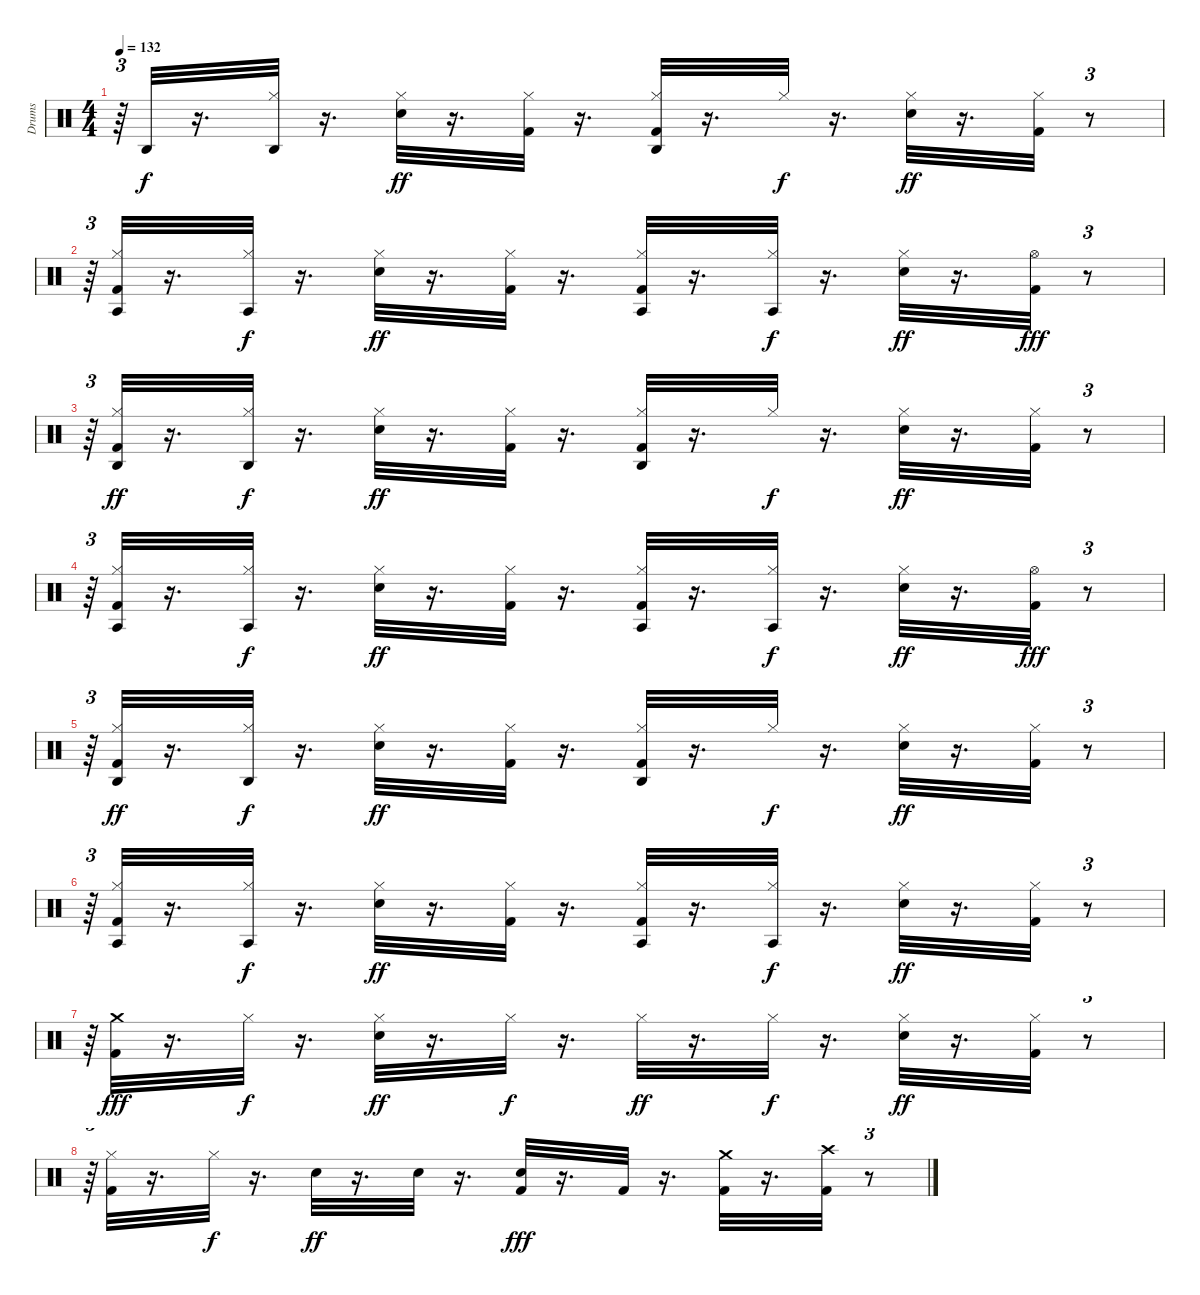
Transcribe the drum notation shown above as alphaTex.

\track ("Drums" "Drums") {instrument percussion}
\staff {score}
\articulation defaults
\ts (4 4)
\tempo 132
\clef neutral
\ks c
r.64{tu (3 2) dy fff} "Agogo high (hit)".32{dy f} r.16{d} ("Hi-Hat (closed)" "Agogo high (hit)").32 r.16{d} ("Snare (hit) 2" "Hi-Hat (closed)").32{dy ff} r.16{d} ("Kick (hit) 2" "Hi-Hat (closed)").32 r.16{d} ("Kick (hit) 2" "Hi-Hat (closed)" "Agogo high (hit)").32 r.16{d} "Hi-Hat (closed)".32{dy f} r.16{d} ("Snare (hit) 2" "Hi-Hat (closed)").32{dy ff} r.16{d} ("Kick (hit) 2" "Hi-Hat (closed)").32 r.8{tu (3 2)} |
r.64{tu (3 2)} ("Kick (hit) 2" "Hi-Hat (closed)" "Agogo tow (hit)").32 r.16{d} ("Hi-Hat (closed)" "Agogo tow (hit)").32{dy f} r.16{d} ("Snare (hit) 2" "Hi-Hat (closed)").32{dy ff} r.16{d} ("Kick (hit) 2" "Hi-Hat (closed)").32 r.16{d} ("Kick (hit) 2" "Hi-Hat (closed)" "Agogo tow (hit)").32 r.16{d} ("Hi-Hat (closed)" "Agogo tow (hit)").32{dy f} r.16{d} ("Snare (hit) 2" "Hi-Hat (closed)").32{dy ff} r.16{d} ("Kick (hit) 2" "Hi-Hat (open)").32{dy fff} r.8{tu (3 2)} |
r.64{tu (3 2)} ("Kick (hit) 2" "Hi-Hat (closed)" "Agogo high (hit)").32{dy ff} r.16{d} ("Hi-Hat (closed)" "Agogo high (hit)").32{dy f} r.16{d} ("Snare (hit) 2" "Hi-Hat (closed)").32{dy ff} r.16{d} ("Kick (hit) 2" "Hi-Hat (closed)").32 r.16{d} ("Kick (hit) 2" "Hi-Hat (closed)" "Agogo high (hit)").32 r.16{d} "Hi-Hat (closed)".32{dy f} r.16{d} ("Snare (hit) 2" "Hi-Hat (closed)").32{dy ff} r.16{d} ("Kick (hit) 2" "Hi-Hat (closed)").32 r.8{tu (3 2)} |
r.64{tu (3 2)} ("Kick (hit) 2" "Hi-Hat (closed)" "Agogo tow (hit)").32 r.16{d} ("Hi-Hat (closed)" "Agogo tow (hit)").32{dy f} r.16{d} ("Snare (hit) 2" "Hi-Hat (closed)").32{dy ff} r.16{d} ("Kick (hit) 2" "Hi-Hat (closed)").32 r.16{d} ("Kick (hit) 2" "Hi-Hat (closed)" "Agogo tow (hit)").32 r.16{d} ("Hi-Hat (closed)" "Agogo tow (hit)").32{dy f} r.16{d} ("Snare (hit) 2" "Hi-Hat (closed)").32{dy ff} r.16{d} ("Kick (hit) 2" "Hi-Hat (open)").32{dy fff} r.8{tu (3 2)} |
r.64{tu (3 2)} ("Kick (hit) 2" "Hi-Hat (closed)" "Agogo high (hit)").32{dy ff} r.16{d} ("Hi-Hat (closed)" "Agogo high (hit)").32{dy f} r.16{d} ("Snare (hit) 2" "Hi-Hat (closed)").32{dy ff} r.16{d} ("Kick (hit) 2" "Hi-Hat (closed)").32 r.16{d} ("Kick (hit) 2" "Hi-Hat (closed)" "Agogo high (hit)").32 r.16{d} "Hi-Hat (closed)".32{dy f} r.16{d} ("Snare (hit) 2" "Hi-Hat (closed)").32{dy ff} r.16{d} ("Kick (hit) 2" "Hi-Hat (closed)").32 r.8{tu (3 2)} |
r.64{tu (3 2)} ("Kick (hit) 2" "Hi-Hat (closed)" "Agogo tow (hit)").32 r.16{d} ("Hi-Hat (closed)" "Agogo tow (hit)").32{dy f} r.16{d} ("Snare (hit) 2" "Hi-Hat (closed)").32{dy ff} r.16{d} ("Kick (hit) 2" "Hi-Hat (closed)").32 r.16{d} ("Kick (hit) 2" "Hi-Hat (closed)" "Agogo tow (hit)").32 r.16{d} ("Hi-Hat (closed)" "Agogo tow (hit)").32{dy f} r.16{d} ("Snare (hit) 2" "Hi-Hat (closed)").32{dy ff} r.16{d} ("Kick (hit) 2" "Hi-Hat (closed)").32 r.8{tu (3 2)} |
r.64{tu (3 2)} ("Kick (hit) 2" "Crash medium (hit)").32{dy fff} r.16{d} "Hi-Hat (closed)".32{dy f} r.16{d} ("Snare (hit) 2" "Hi-Hat (closed)").32{dy ff} r.16{d} "Hi-Hat (closed)".32{dy f} r.16{d} "Hi-Hat (closed)".32{dy ff} r.16{d} "Hi-Hat (closed)".32{dy f} r.16{d} ("Snare (hit) 2" "Hi-Hat (closed)").32{dy ff} r.16{d} ("Kick (hit) 2" "Hi-Hat (closed)").32 r.8{tu (3 2)} |
r.64{tu (3 2)} ("Kick (hit) 2" "Hi-Hat (closed)").32 r.16{d} "Hi-Hat (closed)".32{dy f} r.16{d} "Snare (hit) 2".32{dy ff} r.16{d} "Snare (hit) 2".32 r.16{d} ("Kick (hit) 2" "Snare (hit) 2").32{dy fff} r.16{d} "Kick (hit) 2".32 r.16{d} ("Kick (hit) 2" "Crash medium (hit)").32 r.16{d} ("Kick (hit) 2" "Crash high (hit)").32 r.8{tu (3 2)}
